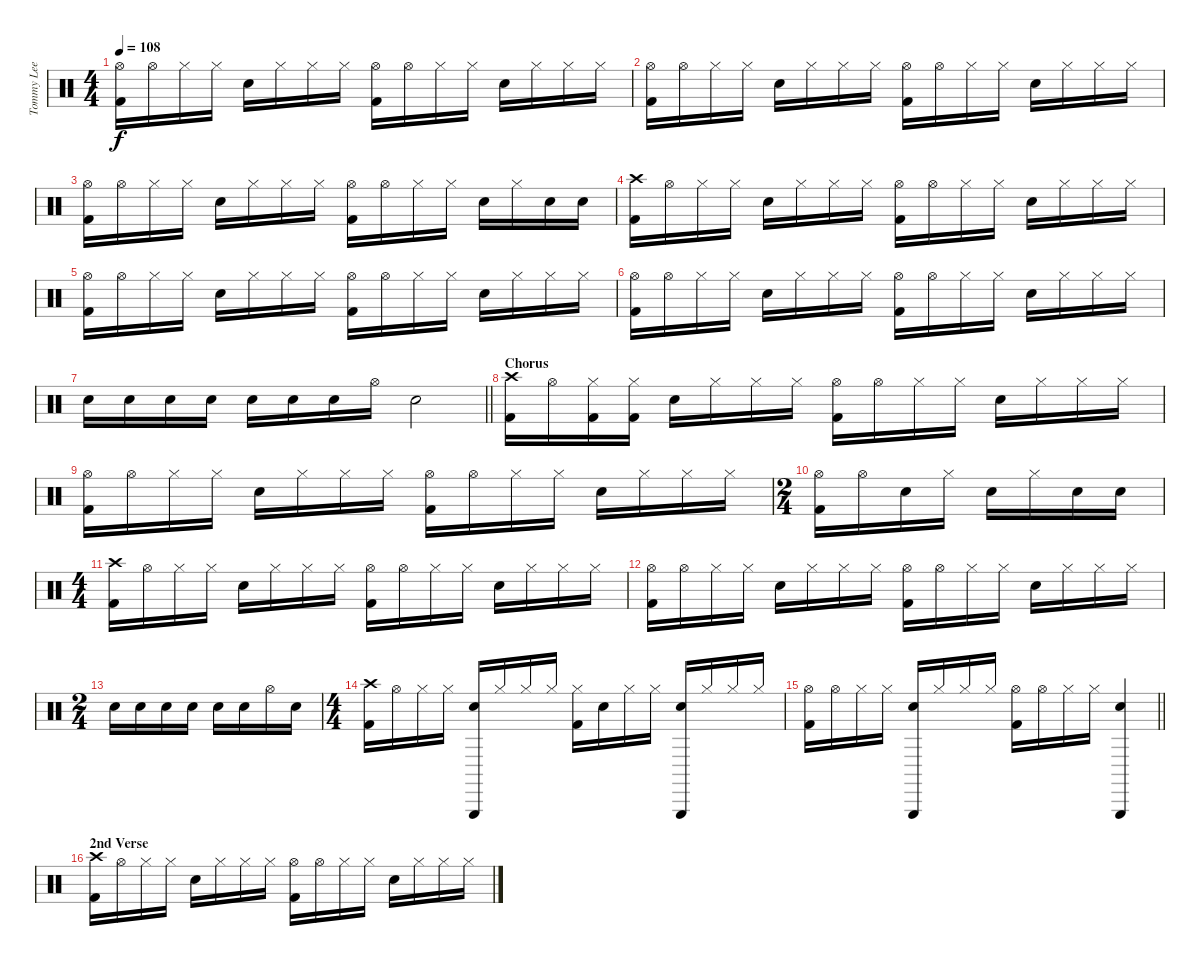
\track ("Tommy Lee - Drums" "Tommy Lee ") {instrument percussion}
\staff {score}
\articulation defaults
\ts (4 4)
\tempo 108
\clef neutral
\ks c
("Hi-Hat (open)" "Kick (hit) 2").16{dy f} "Hi-Hat (open)".16 "Hi-Hat (closed)".16 "Hi-Hat (closed)".16 "Snare (hit) 2".16 "Hi-Hat (closed)".16 "Hi-Hat (closed)".16 "Hi-Hat (closed)".16 ("Hi-Hat (open)" "Kick (hit) 2").16 "Hi-Hat (open)".16 "Hi-Hat (closed)".16 "Hi-Hat (closed)".16 "Snare (hit) 2".16 "Hi-Hat (closed)".16 "Hi-Hat (closed)".16 "Hi-Hat (closed)".16 |
("Hi-Hat (open)" "Kick (hit) 2").16 "Hi-Hat (open)".16 "Hi-Hat (closed)".16 "Hi-Hat (closed)".16 "Snare (hit) 2".16 "Hi-Hat (closed)".16 "Hi-Hat (closed)".16 "Hi-Hat (closed)".16 ("Hi-Hat (open)" "Kick (hit) 2").16 "Hi-Hat (open)".16 "Hi-Hat (closed)".16 "Hi-Hat (closed)".16 "Snare (hit) 2".16 "Hi-Hat (closed)".16 "Hi-Hat (closed)".16 "Hi-Hat (closed)".16 |
("Hi-Hat (open)" "Kick (hit) 2").16 "Hi-Hat (open)".16 "Hi-Hat (closed)".16 "Hi-Hat (closed)".16 "Snare (hit) 2".16 "Hi-Hat (closed)".16 "Hi-Hat (closed)".16 "Hi-Hat (closed)".16 ("Hi-Hat (open)" "Kick (hit) 2").16 "Hi-Hat (open)".16 "Hi-Hat (closed)".16 "Hi-Hat (closed)".16 "Snare (hit) 2".16 "Hi-Hat (closed)".16 "Snare (hit) 2".16 "Snare (hit) 2".16 |
("Crash high (hit)" "Kick (hit) 2").16 "Hi-Hat (open)".16 "Hi-Hat (closed)".16 "Hi-Hat (closed)".16 "Snare (hit) 2".16 "Hi-Hat (closed)".16 "Hi-Hat (closed)".16 "Hi-Hat (closed)".16 ("Hi-Hat (open)" "Kick (hit) 2").16 "Hi-Hat (open)".16 "Hi-Hat (closed)".16 "Hi-Hat (closed)".16 "Snare (hit) 2".16 "Hi-Hat (closed)".16 "Hi-Hat (closed)".16 "Hi-Hat (closed)".16 |
("Hi-Hat (open)" "Kick (hit) 2").16 "Hi-Hat (open)".16 "Hi-Hat (closed)".16 "Hi-Hat (closed)".16 "Snare (hit) 2".16 "Hi-Hat (closed)".16 "Hi-Hat (closed)".16 "Hi-Hat (closed)".16 ("Hi-Hat (open)" "Kick (hit) 2").16 "Hi-Hat (open)".16 "Hi-Hat (closed)".16 "Hi-Hat (closed)".16 "Snare (hit) 2".16 "Hi-Hat (closed)".16 "Hi-Hat (closed)".16 "Hi-Hat (closed)".16 |
("Hi-Hat (open)" "Kick (hit) 2").16 "Hi-Hat (open)".16 "Hi-Hat (closed)".16 "Hi-Hat (closed)".16 "Snare (hit) 2".16 "Hi-Hat (closed)".16 "Hi-Hat (closed)".16 "Hi-Hat (closed)".16 ("Hi-Hat (open)" "Kick (hit) 2").16 "Hi-Hat (open)".16 "Hi-Hat (closed)".16 "Hi-Hat (closed)".16 "Snare (hit) 2".16 "Hi-Hat (closed)".16 "Hi-Hat (closed)".16 "Hi-Hat (closed)".16 |
\barLineRight lightlight "Snare (hit) 2".16 "Snare (hit) 2".16 "Snare (hit) 2".16 "Snare (hit) 2".16 "Snare (hit) 2".16 "Snare (hit) 2".16 "Snare (hit) 2".16 "Hi-Hat (open)".16 "Snare (hit) 2".2
|
\section ("" "Chorus")
("Crash high (hit)" "Kick (hit) 2").16 "Hi-Hat (open)".16 ("Hi-Hat (closed)" "Kick (hit) 2").16 ("Hi-Hat (closed)" "Kick (hit) 2").16 "Snare (hit) 2".16 "Hi-Hat (closed)".16 "Hi-Hat (closed)".16 "Hi-Hat (closed)".16 ("Hi-Hat (open)" "Kick (hit) 2").16 "Hi-Hat (open)".16 "Hi-Hat (closed)".16 "Hi-Hat (closed)".16 "Snare (hit) 2".16 "Hi-Hat (closed)".16 "Hi-Hat (closed)".16 "Hi-Hat (closed)".16 |
("Hi-Hat (open)" "Kick (hit) 2").16 "Hi-Hat (open)".16 "Hi-Hat (closed)".16 "Hi-Hat (closed)".16 "Snare (hit) 2".16 "Hi-Hat (closed)".16 "Hi-Hat (closed)".16 "Hi-Hat (closed)".16 ("Hi-Hat (open)" "Kick (hit) 2").16 "Hi-Hat (open)".16 "Hi-Hat (closed)".16 "Hi-Hat (closed)".16 "Snare (hit) 2".16 "Hi-Hat (closed)".16 "Hi-Hat (closed)".16 "Hi-Hat (closed)".16 |
\ts (2 4)
("Hi-Hat (open)" "Kick (hit) 2").16 "Hi-Hat (open)".16 "Snare (hit) 2".16 "Hi-Hat (closed)".16 "Snare (hit) 2".16 "Hi-Hat (closed)".16 "Snare (hit) 2".16 "Snare (hit) 2".16 |
\ts (4 4)
("Crash high (hit)" "Kick (hit) 2").16 "Hi-Hat (open)".16 "Hi-Hat (closed)".16 "Hi-Hat (closed)".16 "Snare (hit) 2".16 "Hi-Hat (closed)".16 "Hi-Hat (closed)".16 "Hi-Hat (closed)".16 ("Hi-Hat (open)" "Kick (hit) 2").16 "Hi-Hat (open)".16 "Hi-Hat (closed)".16 "Hi-Hat (closed)".16 "Snare (hit) 2".16 "Hi-Hat (closed)".16 "Hi-Hat (closed)".16 "Hi-Hat (closed)".16 |
("Hi-Hat (open)" "Kick (hit) 2").16 "Hi-Hat (open)".16 "Hi-Hat (closed)".16 "Hi-Hat (closed)".16 "Snare (hit) 2".16 "Hi-Hat (closed)".16 "Hi-Hat (closed)".16 "Hi-Hat (closed)".16 ("Hi-Hat (open)" "Kick (hit) 2").16 "Hi-Hat (open)".16 "Hi-Hat (closed)".16 "Hi-Hat (closed)".16 "Snare (hit) 2".16 "Hi-Hat (closed)".16 "Hi-Hat (closed)".16 "Hi-Hat (closed)".16 |
\ts (2 4)
"Snare (hit) 2".16 "Snare (hit) 2".16 "Snare (hit) 2".16 "Snare (hit) 2".16 "Snare (hit) 2".16 "Snare (hit) 2".16 "Hi-Hat (open)".16 "Snare (hit) 2".16 |
\ts (4 4)
("Crash high (hit)" "Kick (hit) 2").16 "Hi-Hat (open)".16 "Hi-Hat (closed)".16 "Hi-Hat (closed)".16 ("Snare (hit) 2" "Triangle (hit)").16 "Hi-Hat (closed)".16 "Hi-Hat (closed)".16 "Hi-Hat (closed)".16 ("Hi-Hat (closed)" "Kick (hit) 2").16 "Snare (hit) 2".16 "Hi-Hat (closed)".16 "Hi-Hat (closed)".16 ("Snare (hit) 2" "Triangle (hit)").16 "Hi-Hat (closed)".16 "Hi-Hat (closed)".16 "Hi-Hat (closed)".16 |
\barLineRight lightlight
("Hi-Hat (open)" "Kick (hit) 2").16 "Hi-Hat (open)".16 "Hi-Hat (closed)".16 "Hi-Hat (closed)".16 ("Snare (hit) 2" "Triangle (hit)").16 "Hi-Hat (closed)".16 "Hi-Hat (closed)".16 "Hi-Hat (closed)".16 ("Hi-Hat (open)" "Kick (hit) 2").16 "Hi-Hat (open)".16 "Hi-Hat (closed)".16 "Hi-Hat (closed)".16 ("Snare (hit) 2" "Triangle (hit)").4 |
\section ("" "2nd Verse")
("Crash high (hit)" "Kick (hit) 2").16 "Hi-Hat (open)".16 "Hi-Hat (closed)".16 "Hi-Hat (closed)".16 "Snare (hit) 2".16 "Hi-Hat (closed)".16 "Hi-Hat (closed)".16 "Hi-Hat (closed)".16 ("Hi-Hat (open)" "Kick (hit) 2").16 "Hi-Hat (open)".16 "Hi-Hat (closed)".16 "Hi-Hat (closed)".16 "Snare (hit) 2".16 "Hi-Hat (closed)".16 "Hi-Hat (closed)".16 "Hi-Hat (closed)".16
